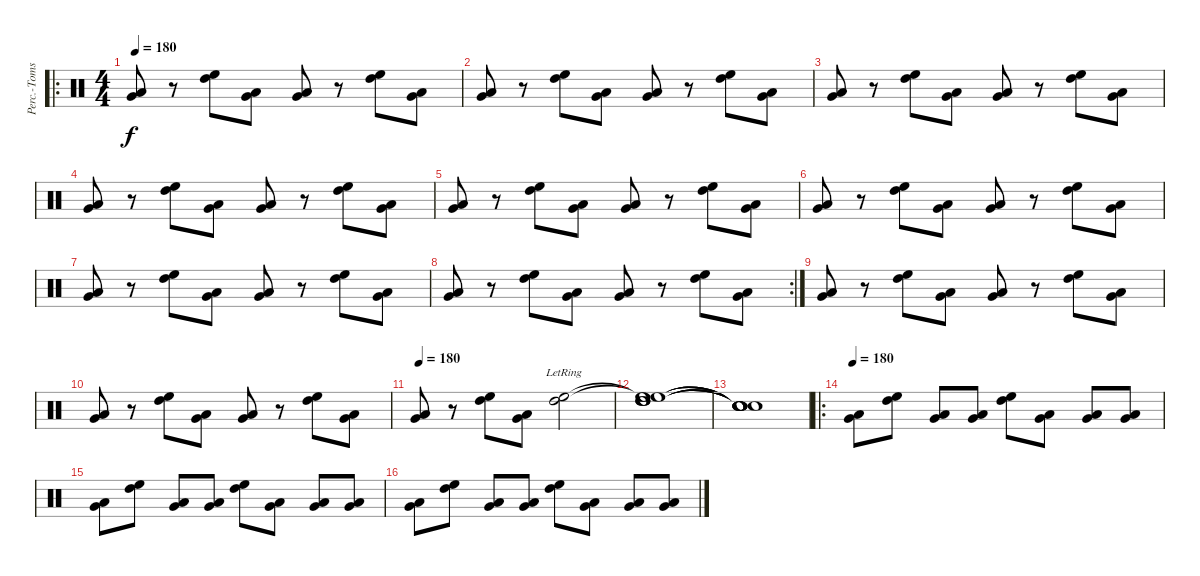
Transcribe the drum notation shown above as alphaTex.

\track ("Perc.-Toms " "Perc.-Toms") {instrument percussion}
\staff {score}
\articulation defaults
\ro
\ts (4 4)
\tempo 180
\clef neutral
\ks c
("Very Low Tom (hit)" "Low Floor Tom (hit)").8{dy f} r.8 ("High Floor Tom (hit)" "High Tom (hit)").8 ("Very Low Tom (hit)" "Low Floor Tom (hit)").8 ("Very Low Tom (hit)" "Low Floor Tom (hit)").8 r.8 ("High Floor Tom (hit)" "High Tom (hit)").8 ("Very Low Tom (hit)" "Low Floor Tom (hit)").8 |
("Very Low Tom (hit)" "Low Floor Tom (hit)").8 r.8 ("High Floor Tom (hit)" "High Tom (hit)").8 ("Very Low Tom (hit)" "Low Floor Tom (hit)").8 ("Very Low Tom (hit)" "Low Floor Tom (hit)").8 r.8 ("High Floor Tom (hit)" "High Tom (hit)").8 ("Very Low Tom (hit)" "Low Floor Tom (hit)").8 |
("Very Low Tom (hit)" "Low Floor Tom (hit)").8 r.8 ("High Floor Tom (hit)" "High Tom (hit)").8 ("Very Low Tom (hit)" "Low Floor Tom (hit)").8 ("Very Low Tom (hit)" "Low Floor Tom (hit)").8 r.8 ("High Floor Tom (hit)" "High Tom (hit)").8 ("Very Low Tom (hit)" "Low Floor Tom (hit)").8 |
("Very Low Tom (hit)" "Low Floor Tom (hit)").8 r.8 ("High Floor Tom (hit)" "High Tom (hit)").8 ("Very Low Tom (hit)" "Low Floor Tom (hit)").8 ("Very Low Tom (hit)" "Low Floor Tom (hit)").8 r.8 ("High Floor Tom (hit)" "High Tom (hit)").8 ("Very Low Tom (hit)" "Low Floor Tom (hit)").8 |
("Very Low Tom (hit)" "Low Floor Tom (hit)").8 r.8 ("High Floor Tom (hit)" "High Tom (hit)").8 ("Very Low Tom (hit)" "Low Floor Tom (hit)").8 ("Very Low Tom (hit)" "Low Floor Tom (hit)").8 r.8 ("High Floor Tom (hit)" "High Tom (hit)").8 ("Very Low Tom (hit)" "Low Floor Tom (hit)").8 |
("Very Low Tom (hit)" "Low Floor Tom (hit)").8 r.8 ("High Floor Tom (hit)" "High Tom (hit)").8 ("Very Low Tom (hit)" "Low Floor Tom (hit)").8 ("Very Low Tom (hit)" "Low Floor Tom (hit)").8 r.8 ("High Floor Tom (hit)" "High Tom (hit)").8 ("Very Low Tom (hit)" "Low Floor Tom (hit)").8 |
("Very Low Tom (hit)" "Low Floor Tom (hit)").8 r.8 ("High Floor Tom (hit)" "High Tom (hit)").8 ("Very Low Tom (hit)" "Low Floor Tom (hit)").8 ("Very Low Tom (hit)" "Low Floor Tom (hit)").8 r.8 ("High Floor Tom (hit)" "High Tom (hit)").8 ("Very Low Tom (hit)" "Low Floor Tom (hit)").8 |
\rc 2
("Very Low Tom (hit)" "Low Floor Tom (hit)").8 r.8 ("High Floor Tom (hit)" "High Tom (hit)").8 ("Very Low Tom (hit)" "Low Floor Tom (hit)").8 ("Very Low Tom (hit)" "Low Floor Tom (hit)").8 r.8 ("High Floor Tom (hit)" "High Tom (hit)").8 ("Very Low Tom (hit)" "Low Floor Tom (hit)").8 |
("Very Low Tom (hit)" "Low Floor Tom (hit)").8 r.8 ("High Floor Tom (hit)" "High Tom (hit)").8 ("Very Low Tom (hit)" "Low Floor Tom (hit)").8 ("Very Low Tom (hit)" "Low Floor Tom (hit)").8 r.8 ("High Floor Tom (hit)" "High Tom (hit)").8 ("Very Low Tom (hit)" "Low Floor Tom (hit)").8 |
("Very Low Tom (hit)" "Low Floor Tom (hit)").8 r.8 ("High Floor Tom (hit)" "High Tom (hit)").8 ("Very Low Tom (hit)" "Low Floor Tom (hit)").8 ("Very Low Tom (hit)" "Low Floor Tom (hit)").8 r.8 ("High Floor Tom (hit)" "High Tom (hit)").8 ("Very Low Tom (hit)" "Low Floor Tom (hit)").8 |
\tempo 180
("Very Low Tom (hit)" "Low Floor Tom (hit)").8 r.8 ("High Floor Tom (hit)" "High Tom (hit)").8 ("Very Low Tom (hit)" "Low Floor Tom (hit)").8 ("High Floor Tom (hit)"{lr} "High Tom (hit)"{lr}).2 |
("High Floor Tom (hit)"{t} "High Floor Tom (hit)"{t} "High Floor Tom (hit)" "High Tom (hit)" "High Tom (hit)" "High Tom (hit)").1 |
("Snare (hit)"{t} "Snare (hit)"{t} "Snare (hit)"{t} "Snare (hit)"{t} "Snare (hit)"{t} "Snare (hit)"{t}).1 |
\ro
\tempo 180
("Very Low Tom (hit)" "Low Floor Tom (hit)").8 ("High Floor Tom (hit)" "High Tom (hit)").8 ("Very Low Tom (hit)" "Low Floor Tom (hit)").8 ("Very Low Tom (hit)" "Low Floor Tom (hit)").8 ("High Floor Tom (hit)" "High Tom (hit)").8 ("Very Low Tom (hit)" "Low Floor Tom (hit)").8 ("Very Low Tom (hit)" "Low Floor Tom (hit)").8 ("Very Low Tom (hit)" "Low Floor Tom (hit)").8 |
("Very Low Tom (hit)" "Low Floor Tom (hit)").8 ("High Floor Tom (hit)" "High Tom (hit)").8 ("Very Low Tom (hit)" "Low Floor Tom (hit)").8 ("Very Low Tom (hit)" "Low Floor Tom (hit)").8 ("High Floor Tom (hit)" "High Tom (hit)").8 ("Very Low Tom (hit)" "Low Floor Tom (hit)").8 ("Very Low Tom (hit)" "Low Floor Tom (hit)").8 ("Very Low Tom (hit)" "Low Floor Tom (hit)").8 |
("Very Low Tom (hit)" "Low Floor Tom (hit)").8 ("High Floor Tom (hit)" "High Tom (hit)").8 ("Very Low Tom (hit)" "Low Floor Tom (hit)").8 ("Very Low Tom (hit)" "Low Floor Tom (hit)").8 ("High Floor Tom (hit)" "High Tom (hit)").8 ("Very Low Tom (hit)" "Low Floor Tom (hit)").8 ("Very Low Tom (hit)" "Low Floor Tom (hit)").8 ("Very Low Tom (hit)" "Low Floor Tom (hit)").8
